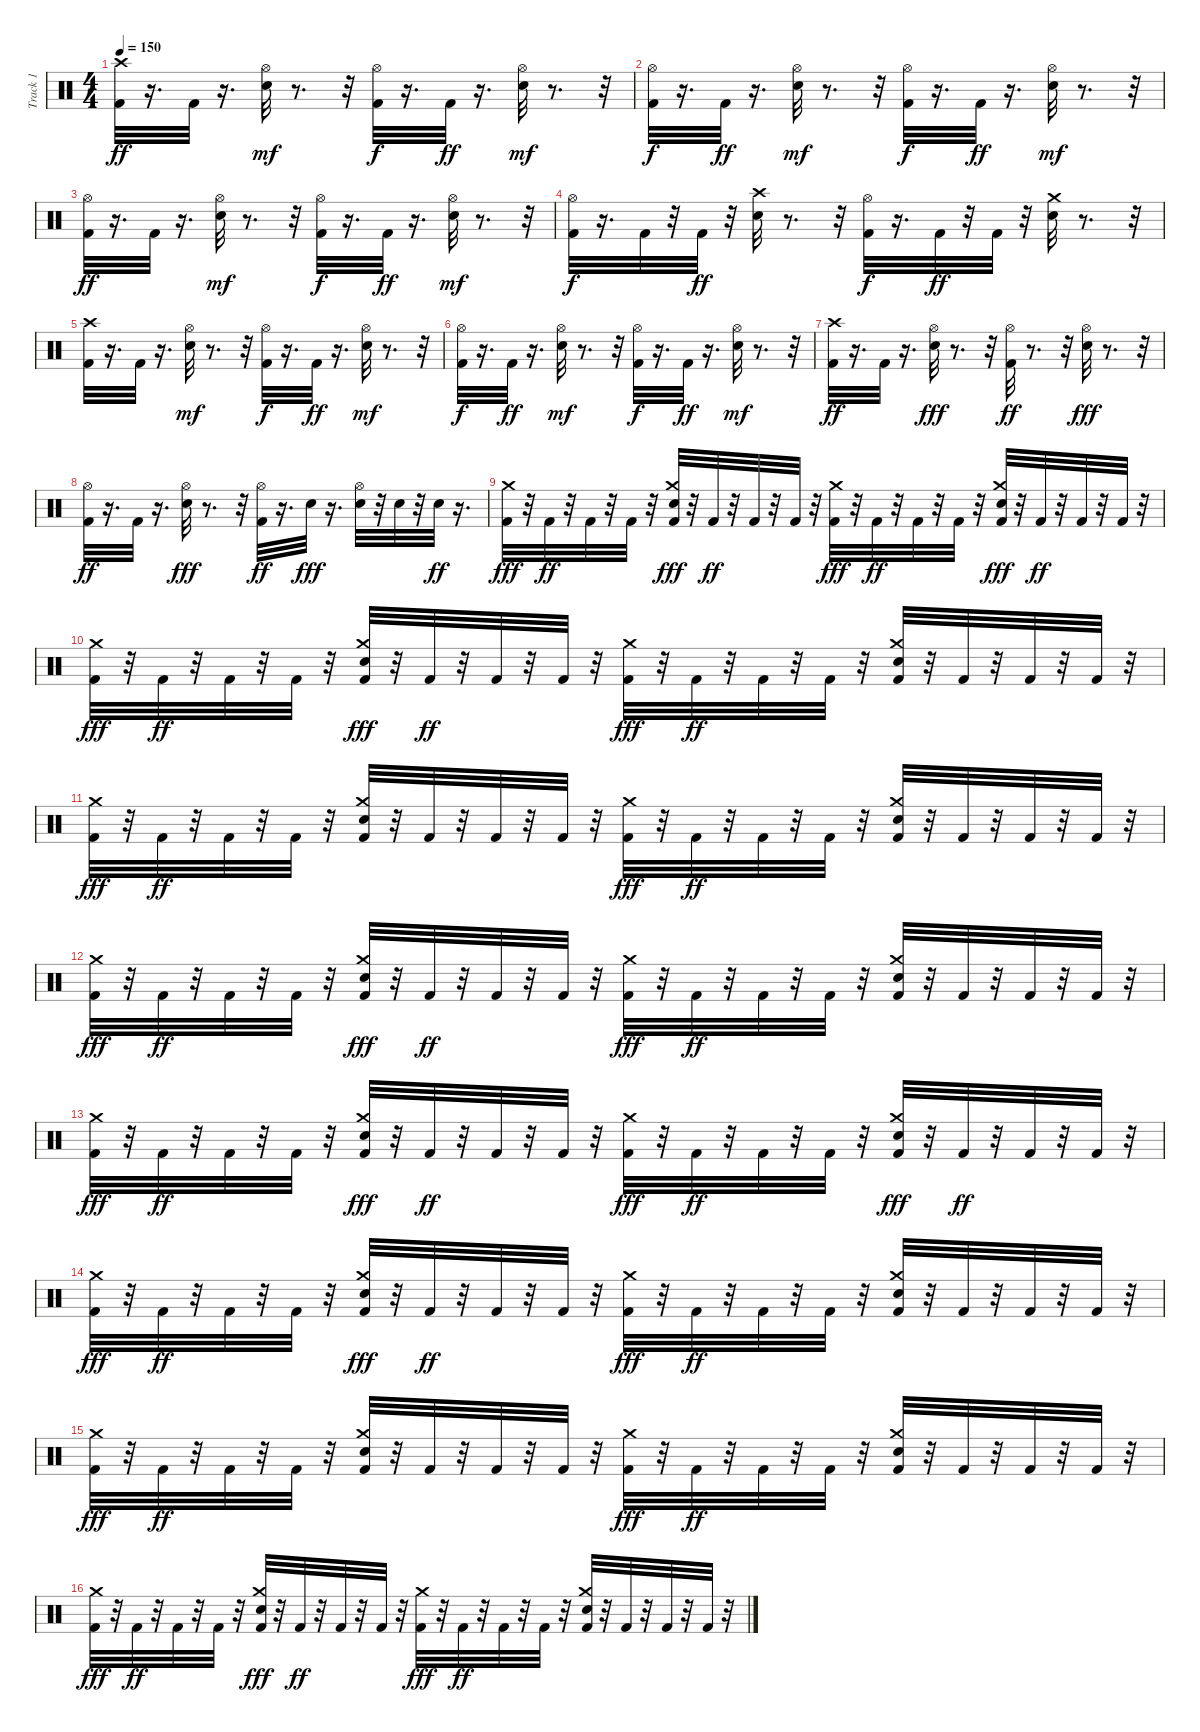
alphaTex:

\track ("Track 1" "Track 1") {instrument percussion}
\staff {score}
\articulation defaults
\ts (4 4)
\tempo 150
\clef neutral
\ks c
("Crash high (hit)" "Kick (hit) 2").32{dy ff} r.16{d} "Kick (hit) 2".32 r.16{d} ("Electric Snare (hit)" "Hi-Hat (open)").32{dy mf} r.8{d} r.32 ("Hi-Hat (open)" "Kick (hit) 2").32{dy f} r.16{d} "Kick (hit) 2".32{dy ff} r.16{d} ("Electric Snare (hit)" "Hi-Hat (open)").32{dy mf} r.8{d} r.32 |
("Hi-Hat (open)" "Kick (hit) 2").32{dy f} r.16{d} "Kick (hit) 2".32{dy ff} r.16{d} ("Electric Snare (hit)" "Hi-Hat (open)").32{dy mf} r.8{d} r.32 ("Kick (hit) 2" "Hi-Hat (open)").32{dy f} r.16{d} "Kick (hit) 2".32{dy ff} r.16{d} ("Electric Snare (hit)" "Hi-Hat (open)").32{dy mf} r.8{d} r.32 |
("Kick (hit) 2" "Hi-Hat (open)").32{dy ff} r.16{d} "Kick (hit) 2".32 r.16{d} ("Electric Snare (hit)" "Hi-Hat (open)").32{dy mf} r.8{d} r.32 ("Hi-Hat (open)" "Kick (hit) 2").32{dy f} r.16{d} "Kick (hit) 2".32{dy ff} r.16{d} ("Electric Snare (hit)" "Hi-Hat (open)").32{dy mf} r.8{d} r.32 |
("Hi-Hat (open)" "Kick (hit) 2").32{dy f} r.16{d} "Kick (hit) 2".32 r.32 "Kick (hit) 2".32{dy ff} r.32 ("Electric Snare (hit)" "Crash high (hit)").32 r.8{d} r.32 ("Kick (hit) 2" "Hi-Hat (open)").32{dy f} r.16{d} "Kick (hit) 2".32{dy ff} r.32 "Kick (hit) 2".32 r.32 ("Electric Snare (hit)" "Crash medium (hit)").32 r.8{d} r.32 |
("Kick (hit) 2" "Crash high (hit)").32 r.16{d} "Kick (hit) 2".32 r.16{d} ("Electric Snare (hit)" "Hi-Hat (open)").32{dy mf} r.8{d} r.32 ("Hi-Hat (open)" "Kick (hit) 2").32{dy f} r.16{d} "Kick (hit) 2".32{dy ff} r.16{d} ("Electric Snare (hit)" "Hi-Hat (open)").32{dy mf} r.8{d} r.32 |
("Hi-Hat (open)" "Kick (hit) 2").32{dy f} r.16{d} "Kick (hit) 2".32{dy ff} r.16{d} ("Electric Snare (hit)" "Hi-Hat (open)").32{dy mf} r.8{d} r.32 ("Kick (hit) 2" "Hi-Hat (open)").32{dy f} r.16{d} "Kick (hit) 2".32{dy ff} r.16{d} ("Electric Snare (hit)" "Hi-Hat (open)").32{dy mf} r.8{d} r.32 |
("Crash high (hit)" "Kick (hit) 2").32{dy ff} r.16{d} "Kick (hit) 2".32 r.16{d} ("Electric Snare (hit)" "Hi-Hat (open)").32{dy fff} r.8{d} r.32 ("Hi-Hat (open)" "Kick (hit) 2").32{dy ff} r.8{d} r.32 ("Hi-Hat (open)" "Electric Snare (hit)").32{dy fff} r.8{d} r.32 |
("Hi-Hat (open)" "Kick (hit) 2").32{dy ff} r.16{d} "Kick (hit) 2".32 r.16{d} ("Hi-Hat (open)" "Electric Snare (hit)").32{dy fff} r.8{d} r.32 ("Kick (hit) 2" "Hi-Hat (open)").32{dy ff} r.16{d} "Electric Snare (hit)".32{dy fff} r.16{d} ("Electric Snare (hit)" "Hi-Hat (open)").32 r.32 "Snare (hit) 2".32 r.32 "Electric Snare (hit)".32{dy ff} r.16{d} |
("Kick (hit) 2" "Crash medium (hit)").32{dy fff} r.32 "Kick (hit) 2".32{dy ff} r.32 "Kick (hit) 2".32 r.32 "Kick (hit) 2".32 r.32 ("Crash medium (hit)" "Kick (hit) 2" "Snare (hit) 2").32{dy fff} r.32 "Kick (hit) 2".32{dy ff} r.32 "Kick (hit) 2".32 r.32 "Kick (hit) 2".32 r.32 ("Kick (hit) 2" "Crash medium (hit)").32{dy fff} r.32 "Kick (hit) 2".32{dy ff} r.32 "Kick (hit) 2".32 r.32 "Kick (hit) 2".32 r.32 ("Crash medium (hit)" "Kick (hit) 2" "Snare (hit) 2").32{dy fff} r.32 "Kick (hit) 2".32{dy ff} r.32 "Kick (hit) 2".32 r.32 "Kick (hit) 2".32 r.32 |
("Kick (hit) 2" "Crash medium (hit)").32{dy fff} r.32 "Kick (hit) 2".32{dy ff} r.32 "Kick (hit) 2".32 r.32 "Kick (hit) 2".32 r.32 ("Crash medium (hit)" "Kick (hit) 2" "Snare (hit) 2").32{dy fff} r.32 "Kick (hit) 2".32{dy ff} r.32 "Kick (hit) 2".32 r.32 "Kick (hit) 2".32 r.32 ("Kick (hit) 2" "Crash medium (hit)").32{dy fff} r.32 "Kick (hit) 2".32{dy ff} r.32 "Kick (hit) 2".32 r.32 "Kick (hit) 2".32 r.32 ("Snare (hit) 2" "Crash medium (hit)" "Kick (hit) 2").32 r.32 "Kick (hit) 2".32 r.32 "Kick (hit) 2".32 r.32 "Kick (hit) 2".32 r.32 |
("Kick (hit) 2" "Crash medium (hit)").32{dy fff} r.32 "Kick (hit) 2".32{dy ff} r.32 "Kick (hit) 2".32 r.32 "Kick (hit) 2".32 r.32 ("Crash medium (hit)" "Snare (hit) 2" "Kick (hit) 2").32 r.32 "Kick (hit) 2".32 r.32 "Kick (hit) 2".32 r.32 "Kick (hit) 2".32 r.32 ("Kick (hit) 2" "Crash medium (hit)").32{dy fff} r.32 "Kick (hit) 2".32{dy ff} r.32 "Kick (hit) 2".32 r.32 "Kick (hit) 2".32 r.32 ("Snare (hit) 2" "Crash medium (hit)" "Kick (hit) 2").32 r.32 "Kick (hit) 2".32 r.32 "Kick (hit) 2".32 r.32 "Kick (hit) 2".32 r.32 |
("Kick (hit) 2" "Crash medium (hit)").32{dy fff} r.32 "Kick (hit) 2".32{dy ff} r.32 "Kick (hit) 2".32 r.32 "Kick (hit) 2".32 r.32 ("Crash medium (hit)" "Kick (hit) 2" "Snare (hit) 2").32{dy fff} r.32 "Kick (hit) 2".32{dy ff} r.32 "Kick (hit) 2".32 r.32 "Kick (hit) 2".32 r.32 ("Kick (hit) 2" "Crash medium (hit)").32{dy fff} r.32 "Kick (hit) 2".32{dy ff} r.32 "Kick (hit) 2".32 r.32 "Kick (hit) 2".32 r.32 ("Crash medium (hit)" "Snare (hit) 2" "Kick (hit) 2").32 r.32 "Kick (hit) 2".32 r.32 "Kick (hit) 2".32 r.32 "Kick (hit) 2".32 r.32 |
("Kick (hit) 2" "Crash medium (hit)").32{dy fff} r.32 "Kick (hit) 2".32{dy ff} r.32 "Kick (hit) 2".32 r.32 "Kick (hit) 2".32 r.32 ("Crash medium (hit)" "Kick (hit) 2" "Snare (hit) 2").32{dy fff} r.32 "Kick (hit) 2".32{dy ff} r.32 "Kick (hit) 2".32 r.32 "Kick (hit) 2".32 r.32 ("Kick (hit) 2" "Crash medium (hit)").32{dy fff} r.32 "Kick (hit) 2".32{dy ff} r.32 "Kick (hit) 2".32 r.32 "Kick (hit) 2".32 r.32 ("Crash medium (hit)" "Kick (hit) 2" "Snare (hit) 2").32{dy fff} r.32 "Kick (hit) 2".32{dy ff} r.32 "Kick (hit) 2".32 r.32 "Kick (hit) 2".32 r.32 |
("Kick (hit) 2" "Crash medium (hit)").32{dy fff} r.32 "Kick (hit) 2".32{dy ff} r.32 "Kick (hit) 2".32 r.32 "Kick (hit) 2".32 r.32 ("Crash medium (hit)" "Kick (hit) 2" "Snare (hit) 2").32{dy fff} r.32 "Kick (hit) 2".32{dy ff} r.32 "Kick (hit) 2".32 r.32 "Kick (hit) 2".32 r.32 ("Kick (hit) 2" "Crash medium (hit)").32{dy fff} r.32 "Kick (hit) 2".32{dy ff} r.32 "Kick (hit) 2".32 r.32 "Kick (hit) 2".32 r.32 ("Snare (hit) 2" "Crash medium (hit)" "Kick (hit) 2").32 r.32 "Kick (hit) 2".32 r.32 "Kick (hit) 2".32 r.32 "Kick (hit) 2".32 r.32 |
("Kick (hit) 2" "Crash medium (hit)").32{dy fff} r.32 "Kick (hit) 2".32{dy ff} r.32 "Kick (hit) 2".32 r.32 "Kick (hit) 2".32 r.32 ("Crash medium (hit)" "Snare (hit) 2" "Kick (hit) 2").32 r.32 "Kick (hit) 2".32 r.32 "Kick (hit) 2".32 r.32 "Kick (hit) 2".32 r.32 ("Kick (hit) 2" "Crash medium (hit)").32{dy fff} r.32 "Kick (hit) 2".32{dy ff} r.32 "Kick (hit) 2".32 r.32 "Kick (hit) 2".32 r.32 ("Snare (hit) 2" "Crash medium (hit)" "Kick (hit) 2").32 r.32 "Kick (hit) 2".32 r.32 "Kick (hit) 2".32 r.32 "Kick (hit) 2".32 r.32 |
("Kick (hit) 2" "Crash medium (hit)").32{dy fff} r.32 "Kick (hit) 2".32{dy ff} r.32 "Kick (hit) 2".32 r.32 "Kick (hit) 2".32 r.32 ("Crash medium (hit)" "Kick (hit) 2" "Snare (hit) 2").32{dy fff} r.32 "Kick (hit) 2".32{dy ff} r.32 "Kick (hit) 2".32 r.32 "Kick (hit) 2".32 r.32 ("Kick (hit) 2" "Crash medium (hit)").32{dy fff} r.32 "Kick (hit) 2".32{dy ff} r.32 "Kick (hit) 2".32 r.32 "Kick (hit) 2".32 r.32 ("Crash medium (hit)" "Snare (hit) 2" "Kick (hit) 2").32 r.32 "Kick (hit) 2".32 r.32 "Kick (hit) 2".32 r.32 "Kick (hit) 2".32 r.32
